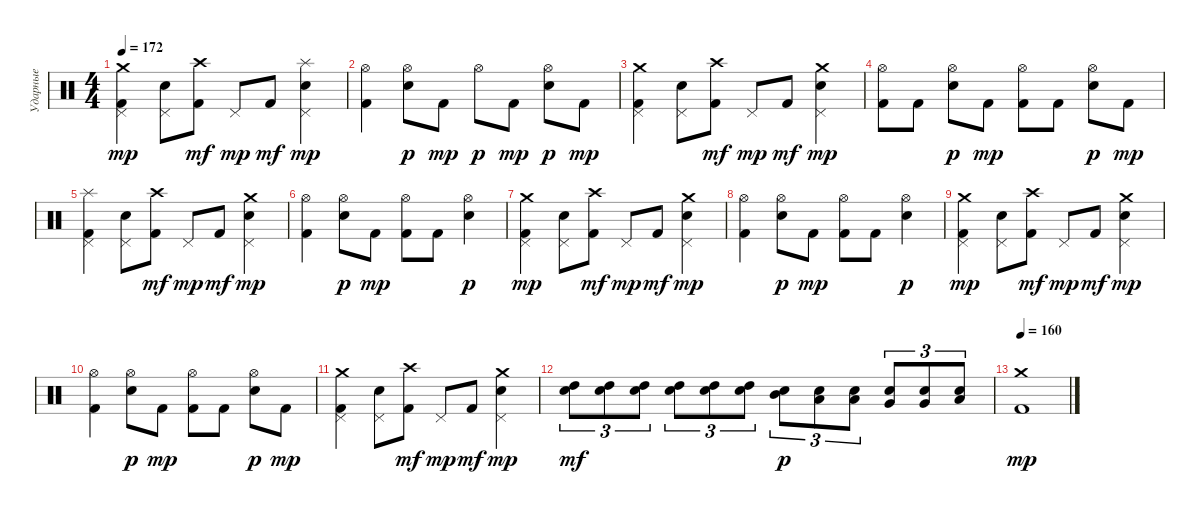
\track ("Ударные" "Ударные") {instrument percussion}
\staff {score}
\articulation defaults
\ts (4 4)
\tempo 172
\clef neutral
\ks c
("Crash medium (hit)" "Kick (hit) 2" "Pedal Hi-Hat (hit)").4{dy mp} ("Electric Snare (hit)" "Pedal Hi-Hat (hit)").8 ("Crash high (hit)" "Kick (hit) 2").8{dy mf} "Pedal Hi-Hat (hit)".8{dy mp} "Kick (hit) 2".8{dy mf} ("Splash (hit)" "Electric Snare (hit)" "Pedal Hi-Hat (hit)").4{dy mp} |
("Hi-Hat (open)" "Kick (hit) 2").4 ("Hi-Hat (open)" "Electric Snare (hit)").8{dy p} "Kick (hit) 2".8{dy mp} "Hi-Hat (open)".8{dy p} "Kick (hit) 2".8{dy mp} ("Hi-Hat (open)" "Electric Snare (hit)").8{dy p} "Kick (hit) 2".8{dy mp} |
("Crash medium (hit)" "Kick (hit) 2" "Pedal Hi-Hat (hit)").4 ("Electric Snare (hit)" "Pedal Hi-Hat (hit)").8 ("Crash high (hit)" "Kick (hit) 2").8{dy mf} "Pedal Hi-Hat (hit)".8{dy mp} "Kick (hit) 2".8{dy mf} ("Crash medium (hit)" "Electric Snare (hit)" "Pedal Hi-Hat (hit)").4{dy mp} |
("Hi-Hat (open)" "Kick (hit) 2").8 "Kick (hit) 2".8 ("Hi-Hat (open)" "Electric Snare (hit)").8{dy p} "Kick (hit) 2".8{dy mp} ("Hi-Hat (open)" "Kick (hit) 2").8 "Kick (hit) 2".8 ("Hi-Hat (open)" "Electric Snare (hit)").8{dy p} "Kick (hit) 2".8{dy mp} |
("Splash (hit)" "Kick (hit) 2" "Pedal Hi-Hat (hit)").4 ("Electric Snare (hit)" "Pedal Hi-Hat (hit)").8 ("Crash high (hit)" "Kick (hit) 2").8{dy mf} "Pedal Hi-Hat (hit)".8{dy mp} "Kick (hit) 2".8{dy mf} ("Crash medium (hit)" "Electric Snare (hit)" "Pedal Hi-Hat (hit)").4{dy mp} |
("Hi-Hat (open)" "Kick (hit) 2").4 ("Hi-Hat (open)" "Electric Snare (hit)").8{dy p} "Kick (hit) 2".8{dy mp} ("Hi-Hat (open)" "Kick (hit) 2").8 "Kick (hit) 2".8 ("Hi-Hat (open)" "Electric Snare (hit)").4{dy p} |
("Crash medium (hit)" "Kick (hit) 2" "Pedal Hi-Hat (hit)").4{dy mp} ("Electric Snare (hit)" "Pedal Hi-Hat (hit)").8 ("Crash high (hit)" "Kick (hit) 2").8{dy mf} "Pedal Hi-Hat (hit)".8{dy mp} "Kick (hit) 2".8{dy mf} ("Crash medium (hit)" "Electric Snare (hit)" "Pedal Hi-Hat (hit)").4{dy mp} |
("Hi-Hat (open)" "Kick (hit) 2").4 ("Hi-Hat (open)" "Electric Snare (hit)").8{dy p} "Kick (hit) 2".8{dy mp} ("Hi-Hat (open)" "Kick (hit) 2").8 "Kick (hit) 2".8 ("Hi-Hat (open)" "Electric Snare (hit)").4{dy p} |
("Crash medium (hit)" "Kick (hit) 2" "Pedal Hi-Hat (hit)").4{dy mp} ("Electric Snare (hit)" "Pedal Hi-Hat (hit)").8 ("Crash high (hit)" "Kick (hit) 2").8{dy mf} "Pedal Hi-Hat (hit)".8{dy mp} "Kick (hit) 2".8{dy mf} ("Crash medium (hit)" "Electric Snare (hit)" "Pedal Hi-Hat (hit)").4{dy mp} |
("Hi-Hat (open)" "Kick (hit) 2").4 ("Hi-Hat (open)" "Electric Snare (hit)").8{dy p} "Kick (hit) 2".8{dy mp} ("Hi-Hat (open)" "Kick (hit) 2").8 "Kick (hit) 2".8 ("Hi-Hat (open)" "Electric Snare (hit)").8{dy p} "Kick (hit) 2".8{dy mp} |
("Crash medium (hit)" "Kick (hit) 2" "Pedal Hi-Hat (hit)").4 ("Electric Snare (hit)" "Pedal Hi-Hat (hit)").8 ("Crash high (hit)" "Kick (hit) 2").8{dy mf} "Pedal Hi-Hat (hit)".8{dy mp} "Kick (hit) 2".8{dy mf} ("Crash medium (hit)" "Electric Snare (hit)" "Pedal Hi-Hat (hit)").4{dy mp} |
("Electric Snare (hit)" "High Tom (hit)").8{tu (3 2) dy mf} ("Electric Snare (hit)" "High Tom (hit)").8{tu (3 2)} ("Electric Snare (hit)" "High Tom (hit)").8{tu (3 2)} ("Electric Snare (hit)" "High Tom (hit)").8{tu (3 2)} ("Electric Snare (hit)" "High Tom (hit)").8{tu (3 2)} ("Electric Snare (hit)" "High Tom (hit)").8{tu (3 2)} ("Mid Tom (hit)" "Electric Snare (hit)").8{tu (3 2) dy p} ("Low Tom (hit)" "Electric Snare (hit)").8{tu (3 2)} ("Low Tom (hit)" "Electric Snare (hit)").8{tu (3 2)} ("Very Low Tom (hit)" "Electric Snare (hit)").8{tu (3 2)} ("Very Low Tom (hit)" "Electric Snare (hit)").8{tu (3 2)} ("Low Floor Tom (hit)" "Electric Snare (hit)").8{tu (3 2)} |
\section ("" "")
\tempo 160
("Crash medium (hit)" "Kick (hit) 2").1{dy mp}
